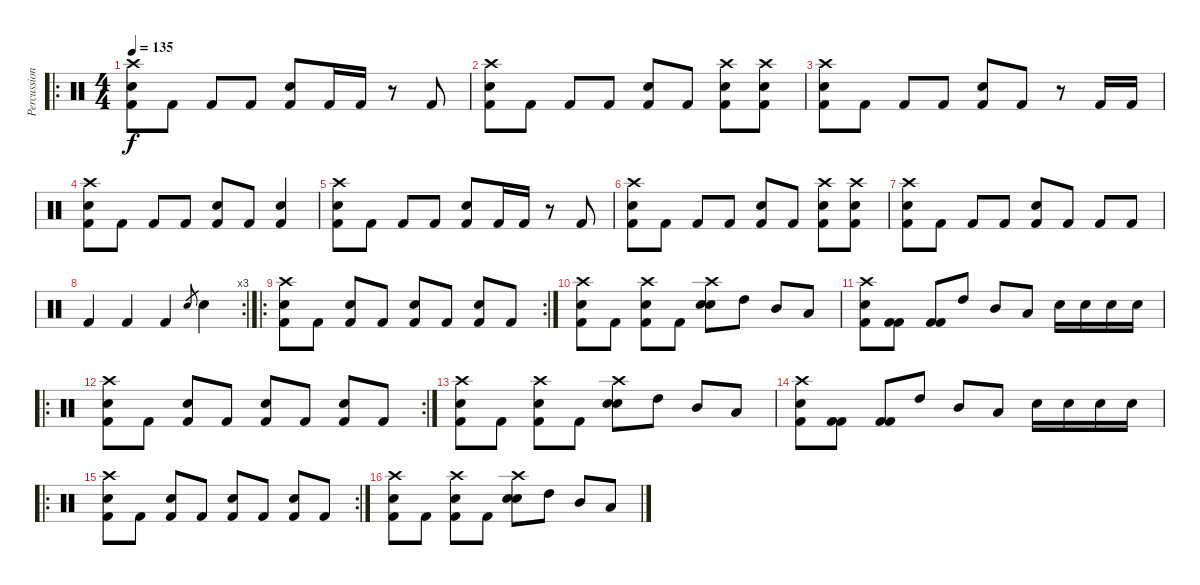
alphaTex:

\track ("Percussions" "Percussion") {instrument percussion}
\staff {score}
\articulation defaults
\ro
\ts (4 4)
\tempo 135
\clef neutral
\ks c
("Crash high (hit)" "Kick (hit) 2" "Electric Snare (hit)").8{dy f} "Kick (hit) 2".8 "Kick (hit) 2".8 "Kick (hit) 2".8 ("Kick (hit) 2" "Electric Snare (hit)").8 "Kick (hit) 2".16 "Kick (hit) 2".16 r.8 "Kick (hit) 2".8 |
("Crash high (hit)" "Kick (hit) 2" "Electric Snare (hit)").8 "Kick (hit) 2".8 "Kick (hit) 2".8 "Kick (hit) 2".8 ("Kick (hit) 2" "Electric Snare (hit)").8 "Kick (hit) 2".8 ("Crash high (hit)" "Electric Snare (hit)" "Kick (hit) 2").8 ("Crash high (hit)" "Electric Snare (hit)" "Kick (hit) 2").8 |
("Crash high (hit)" "Kick (hit) 2" "Electric Snare (hit)").8 "Kick (hit) 2".8 "Kick (hit) 2".8 "Kick (hit) 2".8 ("Kick (hit) 2" "Electric Snare (hit)").8 "Kick (hit) 2".8 r.8 "Kick (hit) 2".16 "Kick (hit) 2".16 |
("Crash high (hit)" "Kick (hit) 2" "Electric Snare (hit)").8 "Kick (hit) 2".8 "Kick (hit) 2".8 "Kick (hit) 2".8 ("Kick (hit) 2" "Electric Snare (hit)").8 "Kick (hit) 2".8 ("Electric Snare (hit)" "Kick (hit) 2").4 |
("Crash high (hit)" "Kick (hit) 2" "Electric Snare (hit)").8 "Kick (hit) 2".8 "Kick (hit) 2".8 "Kick (hit) 2".8 ("Kick (hit) 2" "Electric Snare (hit)").8 "Kick (hit) 2".16 "Kick (hit) 2".16 r.8 "Kick (hit) 2".8 |
("Crash high (hit)" "Kick (hit) 2" "Electric Snare (hit)").8 "Kick (hit) 2".8 "Kick (hit) 2".8 "Kick (hit) 2".8 ("Kick (hit) 2" "Electric Snare (hit)").8 "Kick (hit) 2".8 ("Electric Snare (hit)" "Crash high (hit)" "Kick (hit) 2").8 ("Electric Snare (hit)" "Crash high (hit)" "Kick (hit) 2").8 |
("Crash high (hit)" "Kick (hit) 2" "Electric Snare (hit)").8 "Kick (hit) 2".8 "Kick (hit) 2".8 "Kick (hit) 2".8 ("Kick (hit) 2" "Electric Snare (hit)").8 "Kick (hit) 2".8 "Kick (hit) 2".8 "Kick (hit) 2".8 |
\rc 3 "Kick (hit) 2".4 "Kick (hit) 2".4 "Kick (hit) 2".4 "Electric Snare (hit)".8{gr} "Electric Snare (hit)".4
|
\ro
\rc 2
("Crash high (hit)" "Kick (hit) 2" "Electric Snare (hit)").8 "Kick (hit) 2".8 ("Electric Snare (hit)" "Kick (hit) 2").8 "Kick (hit) 2".8 ("Kick (hit) 2" "Electric Snare (hit)").8 "Kick (hit) 2".8 ("Electric Snare (hit)" "Kick (hit) 2").8 "Kick (hit) 2".8 |
("Crash high (hit)" "Kick (hit) 2" "Electric Snare (hit)").8 "Kick (hit) 2".8 ("Electric Snare (hit)" "Crash high (hit)" "Kick (hit) 2").8 "Kick (hit) 2".8 ("Electric Snare (hit)" "Crash high (hit)" "Electric Snare (hit)").8 "High Tom (hit)".8 "Mid Tom (hit)".8 "Low Tom (hit)".8 |
("Kick (hit) 2" "Crash high (hit)" "Electric Snare (hit)").8 ("Kick (hit) 2" "Kick (hit) 2").8 ("Kick (hit) 2" "Kick (hit) 2").8 "High Tom (hit)".8 "Mid Tom (hit)".8 "Low Tom (hit)".8 "Electric Snare (hit)".16 "Electric Snare (hit)".16 "Electric Snare (hit)".16 "Electric Snare (hit)".16 |
\ro
\rc 2
("Crash high (hit)" "Kick (hit) 2" "Electric Snare (hit)").8 "Kick (hit) 2".8 ("Electric Snare (hit)" "Kick (hit) 2").8 "Kick (hit) 2".8 ("Kick (hit) 2" "Electric Snare (hit)").8 "Kick (hit) 2".8 ("Electric Snare (hit)" "Kick (hit) 2").8 "Kick (hit) 2".8 |
("Crash high (hit)" "Kick (hit) 2" "Electric Snare (hit)").8 "Kick (hit) 2".8 ("Electric Snare (hit)" "Crash high (hit)" "Kick (hit) 2").8 "Kick (hit) 2".8 ("Electric Snare (hit)" "Crash high (hit)" "Electric Snare (hit)").8 "High Tom (hit)".8 "Mid Tom (hit)".8 "Low Tom (hit)".8 |
("Kick (hit) 2" "Crash high (hit)" "Electric Snare (hit)").8 ("Kick (hit) 2" "Kick (hit) 2").8 ("Kick (hit) 2" "Kick (hit) 2").8 "High Tom (hit)".8 "Mid Tom (hit)".8 "Low Tom (hit)".8 "Electric Snare (hit)".16 "Electric Snare (hit)".16 "Electric Snare (hit)".16 "Electric Snare (hit)".16 |
\ro
\rc 2
("Crash high (hit)" "Kick (hit) 2" "Electric Snare (hit)").8 "Kick (hit) 2".8 ("Electric Snare (hit)" "Kick (hit) 2").8 "Kick (hit) 2".8 ("Kick (hit) 2" "Electric Snare (hit)").8 "Kick (hit) 2".8 ("Electric Snare (hit)" "Kick (hit) 2").8 "Kick (hit) 2".8 |
("Crash high (hit)" "Kick (hit) 2" "Electric Snare (hit)").8 "Kick (hit) 2".8 ("Electric Snare (hit)" "Crash high (hit)" "Kick (hit) 2").8 "Kick (hit) 2".8 ("Electric Snare (hit)" "Crash high (hit)" "Electric Snare (hit)").8 "High Tom (hit)".8 "Mid Tom (hit)".8 "Low Tom (hit)".8
